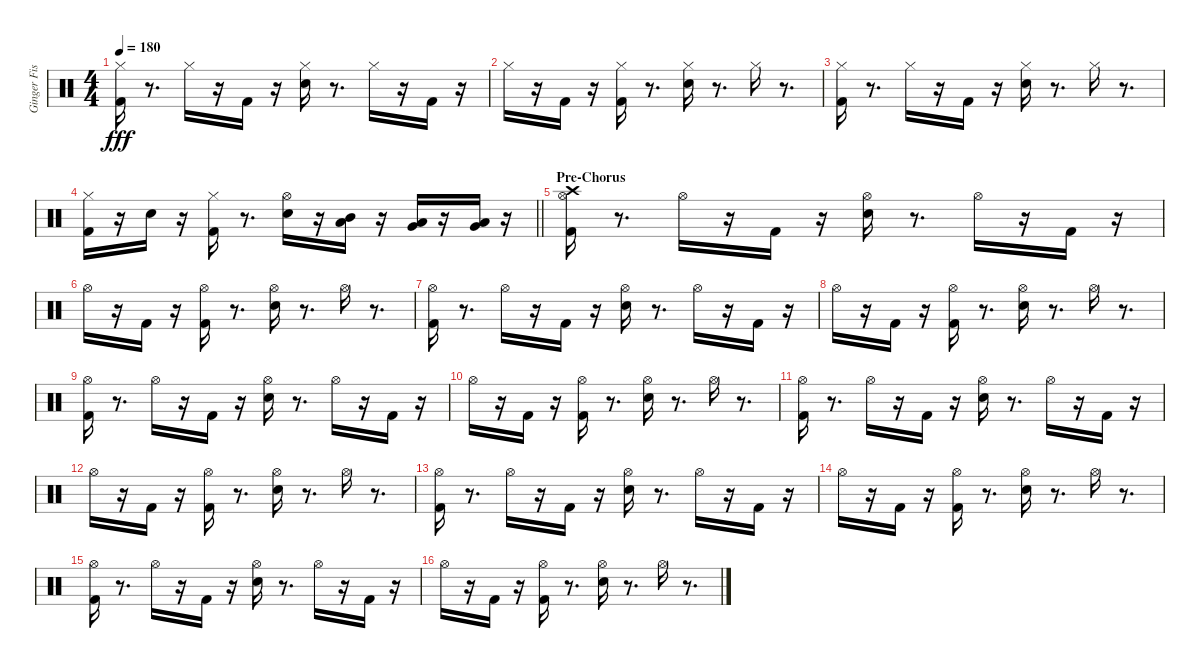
\track ("Ginger Fish" "Ginger Fis") {instrument percussion}
\staff {score}
\articulation defaults
\ts (4 4)
\tempo 180
\clef neutral
\ks c
("Kick (hit) 2" "Hi-Hat (closed)").16{dy fff} r.8{d} "Hi-Hat (closed)".16 r.16 "Kick (hit) 2".16 r.16 ("Electric Snare (hit)" "Hi-Hat (closed)").16 r.8{d} "Hi-Hat (closed)".16 r.16 "Kick (hit) 2".16 r.16 |
"Hi-Hat (closed)".16 r.16 "Kick (hit) 2".16 r.16 ("Hi-Hat (closed)" "Kick (hit) 2").16 r.8{d} ("Hi-Hat (closed)" "Electric Snare (hit)").16 r.8{d} "Hi-Hat (closed)".16 r.8{d} |
("Kick (hit) 2" "Hi-Hat (closed)").16 r.8{d} "Hi-Hat (closed)".16 r.16 "Kick (hit) 2".16 r.16 ("Electric Snare (hit)" "Hi-Hat (closed)").16 r.8{d} "Hi-Hat (closed)".16 r.8{d} |
\barLineRight lightlight
("Hi-Hat (closed)" "Kick (hit) 2").16 r.16 "Electric Snare (hit)".16 r.16 ("Kick (hit) 2" "Hi-Hat (closed)").16 r.8{d} ("Hi-Hat (open)" "Electric Snare (hit)").16 r.16 ("Mid Tom (hit)" "Low Tom (hit)").16 r.16 ("Low Tom (hit)" "Very Low Tom (hit)").16 r.16 ("Very Low Tom (hit)" "Low Floor Tom (hit)").16 r.16 |
\section ("" "Pre-Chorus")
("Crash high (hit)" "Kick (hit) 2" "Hi-Hat (open)").16 r.8{d} "Hi-Hat (open)".16 r.16 "Kick (hit) 2".16 r.16 ("Electric Snare (hit)" "Hi-Hat (open)").16 r.8{d} "Hi-Hat (open)".16 r.16 "Kick (hit) 2".16 r.16 |
"Hi-Hat (open)".16 r.16 "Kick (hit) 2".16 r.16 ("Hi-Hat (open)" "Kick (hit) 2").16 r.8{d} ("Hi-Hat (open)" "Electric Snare (hit)").16 r.8{d} "Hi-Hat (open)".16 r.8{d} |
("Kick (hit) 2" "Hi-Hat (open)").16 r.8{d} "Hi-Hat (open)".16 r.16 "Kick (hit) 2".16 r.16 ("Electric Snare (hit)" "Hi-Hat (open)").16 r.8{d} "Hi-Hat (open)".16 r.16 "Kick (hit) 2".16 r.16 |
"Hi-Hat (open)".16 r.16 "Kick (hit) 2".16 r.16 ("Hi-Hat (open)" "Kick (hit) 2").16 r.8{d} ("Hi-Hat (open)" "Electric Snare (hit)").16 r.8{d} "Hi-Hat (open)".16 r.8{d} |
("Kick (hit) 2" "Hi-Hat (open)").16 r.8{d} "Hi-Hat (open)".16 r.16 "Kick (hit) 2".16 r.16 ("Electric Snare (hit)" "Hi-Hat (open)").16 r.8{d} "Hi-Hat (open)".16 r.16 "Kick (hit) 2".16 r.16 |
"Hi-Hat (open)".16 r.16 "Kick (hit) 2".16 r.16 ("Hi-Hat (open)" "Kick (hit) 2").16 r.8{d} ("Hi-Hat (open)" "Electric Snare (hit)").16 r.8{d} "Hi-Hat (open)".16 r.8{d} |
("Kick (hit) 2" "Hi-Hat (open)").16 r.8{d} "Hi-Hat (open)".16 r.16 "Kick (hit) 2".16 r.16 ("Electric Snare (hit)" "Hi-Hat (open)").16 r.8{d} "Hi-Hat (open)".16 r.16 "Kick (hit) 2".16 r.16 |
"Hi-Hat (open)".16 r.16 "Kick (hit) 2".16 r.16 ("Hi-Hat (open)" "Kick (hit) 2").16 r.8{d} ("Hi-Hat (open)" "Electric Snare (hit)").16 r.8{d} "Hi-Hat (open)".16 r.8{d} |
("Kick (hit) 2" "Hi-Hat (open)").16 r.8{d} "Hi-Hat (open)".16 r.16 "Kick (hit) 2".16 r.16 ("Electric Snare (hit)" "Hi-Hat (open)").16 r.8{d} "Hi-Hat (open)".16 r.16 "Kick (hit) 2".16 r.16 |
"Hi-Hat (open)".16 r.16 "Kick (hit) 2".16 r.16 ("Hi-Hat (open)" "Kick (hit) 2").16 r.8{d} ("Hi-Hat (open)" "Electric Snare (hit)").16 r.8{d} "Hi-Hat (open)".16 r.8{d} |
("Kick (hit) 2" "Hi-Hat (open)").16 r.8{d} "Hi-Hat (open)".16 r.16 "Kick (hit) 2".16 r.16 ("Electric Snare (hit)" "Hi-Hat (open)").16 r.8{d} "Hi-Hat (open)".16 r.16 "Kick (hit) 2".16 r.16 |
"Hi-Hat (open)".16 r.16 "Kick (hit) 2".16 r.16 ("Hi-Hat (open)" "Kick (hit) 2").16 r.8{d} ("Hi-Hat (open)" "Electric Snare (hit)").16 r.8{d} "Hi-Hat (open)".16 r.8{d}
